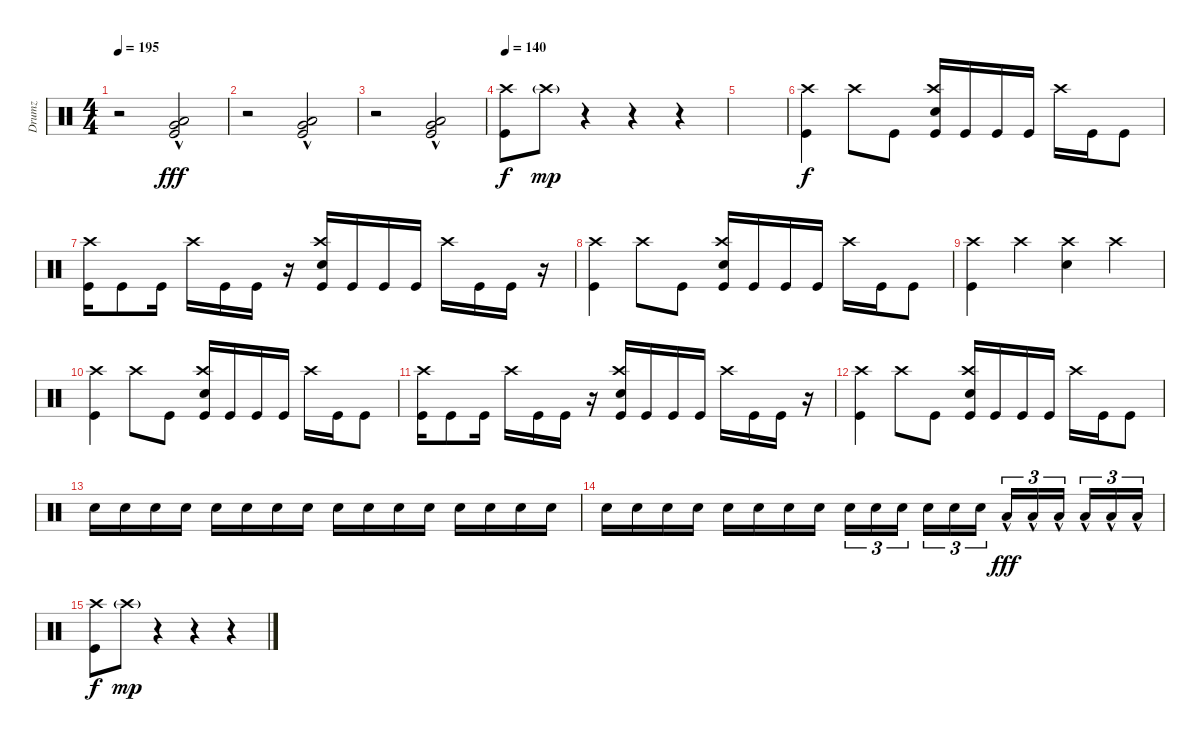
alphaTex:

\track ("Drumz" "Drumz") {instrument percussion}
\staff {score}
\articulation defaults
\ts (4 4)
\tempo 195
\clef neutral
\ks c
r.2{dy fff} ("Very Low Tom (hit)"{hac} "Low Tom (hit)"{hac} "Kick (hit)").2 |
r.2 ("Very Low Tom (hit)"{hac} "Low Tom (hit)"{hac} "Kick (hit)").2 |
r.2 ("Very Low Tom (hit)"{hac} "Low Tom (hit)"{hac} "Kick (hit)").2 |
\tempo 140
("Crash high (hit)" "Kick (hit)").8{dy f} "Crash high (hit)"{g}.8{dy mp} r.4 r.4 r.4 |
|
("Crash high (hit)" "Kick (hit)").4{dy f} "Crash high (hit)".8 "Kick (hit)".8 ("Crash high (hit)" "Electric Snare (hit)" "Kick (hit)").16 "Kick (hit)".16 "Kick (hit)".16 "Kick (hit)".16 "Crash high (hit)".16 "Kick (hit)".16 "Kick (hit)".8 |
("Crash high (hit)" "Kick (hit)").16 "Kick (hit)".8 "Kick (hit)".16 "Crash high (hit)".16 "Kick (hit)".16 "Kick (hit)".16 r.16 ("Crash high (hit)" "Electric Snare (hit)" "Kick (hit)").16 "Kick (hit)".16 "Kick (hit)".16 "Kick (hit)".16 "Crash high (hit)".16 "Kick (hit)".16 "Kick (hit)".16 r.16 |
("Crash high (hit)" "Kick (hit)").4 "Crash high (hit)".8 "Kick (hit)".8 ("Crash high (hit)" "Electric Snare (hit)" "Kick (hit)").16 "Kick (hit)".16 "Kick (hit)".16 "Kick (hit)".16 "Crash high (hit)".16 "Kick (hit)".16 "Kick (hit)".8 |
("Crash high (hit)" "Kick (hit)").4 "Crash high (hit)".4 ("Crash high (hit)" "Electric Snare (hit)").4 "Crash high (hit)".4 |
("Crash high (hit)" "Kick (hit)").4 "Crash high (hit)".8 "Kick (hit)".8 ("Crash high (hit)" "Electric Snare (hit)" "Kick (hit)").16 "Kick (hit)".16 "Kick (hit)".16 "Kick (hit)".16 "Crash high (hit)".16 "Kick (hit)".16 "Kick (hit)".8 |
("Crash high (hit)" "Kick (hit)").16 "Kick (hit)".8 "Kick (hit)".16 "Crash high (hit)".16 "Kick (hit)".16 "Kick (hit)".16 r.16 ("Crash high (hit)" "Electric Snare (hit)" "Kick (hit)").16 "Kick (hit)".16 "Kick (hit)".16 "Kick (hit)".16 "Crash high (hit)".16 "Kick (hit)".16 "Kick (hit)".16 r.16 |
("Crash high (hit)" "Kick (hit)").4 "Crash high (hit)".8 "Kick (hit)".8 ("Crash high (hit)" "Electric Snare (hit)" "Kick (hit)").16 "Kick (hit)".16 "Kick (hit)".16 "Kick (hit)".16 "Crash high (hit)".16 "Kick (hit)".16 "Kick (hit)".8 |
"Electric Snare (hit)".16 "Electric Snare (hit)".16 "Electric Snare (hit)".16 "Electric Snare (hit)".16 "Electric Snare (hit)".16 "Electric Snare (hit)".16 "Electric Snare (hit)".16 "Electric Snare (hit)".16 "Electric Snare (hit)".16 "Electric Snare (hit)".16 "Electric Snare (hit)".16 "Electric Snare (hit)".16 "Electric Snare (hit)".16 "Electric Snare (hit)".16 "Electric Snare (hit)".16 "Electric Snare (hit)".16 |
"Electric Snare (hit)".16 "Electric Snare (hit)".16 "Electric Snare (hit)".16 "Electric Snare (hit)".16 "Electric Snare (hit)".16 "Electric Snare (hit)".16 "Electric Snare (hit)".16 "Electric Snare (hit)".16 "Electric Snare (hit)".16{tu (3 2)} "Electric Snare (hit)".16{tu (3 2)} "Electric Snare (hit)".16{tu (3 2) beam splitsecondary} "Electric Snare (hit)".16{tu (3 2)} "Electric Snare (hit)".16{tu (3 2)} "Electric Snare (hit)".16{tu (3 2)} "Low Tom (hit)"{hac}.16{tu (3 2) dy fff} "Low Tom (hit)"{hac}.16{tu (3 2)} "Low Tom (hit)"{hac}.16{tu (3 2) beam splitsecondary} "Low Tom (hit)"{hac}.16{tu (3 2)} "Low Tom (hit)"{hac}.16{tu (3 2)} "Low Tom (hit)"{hac}.16{tu (3 2)} |
("Crash high (hit)" "Kick (hit)").8{dy f} "Crash high (hit)"{g}.8{dy mp} r.4 r.4 r.4
